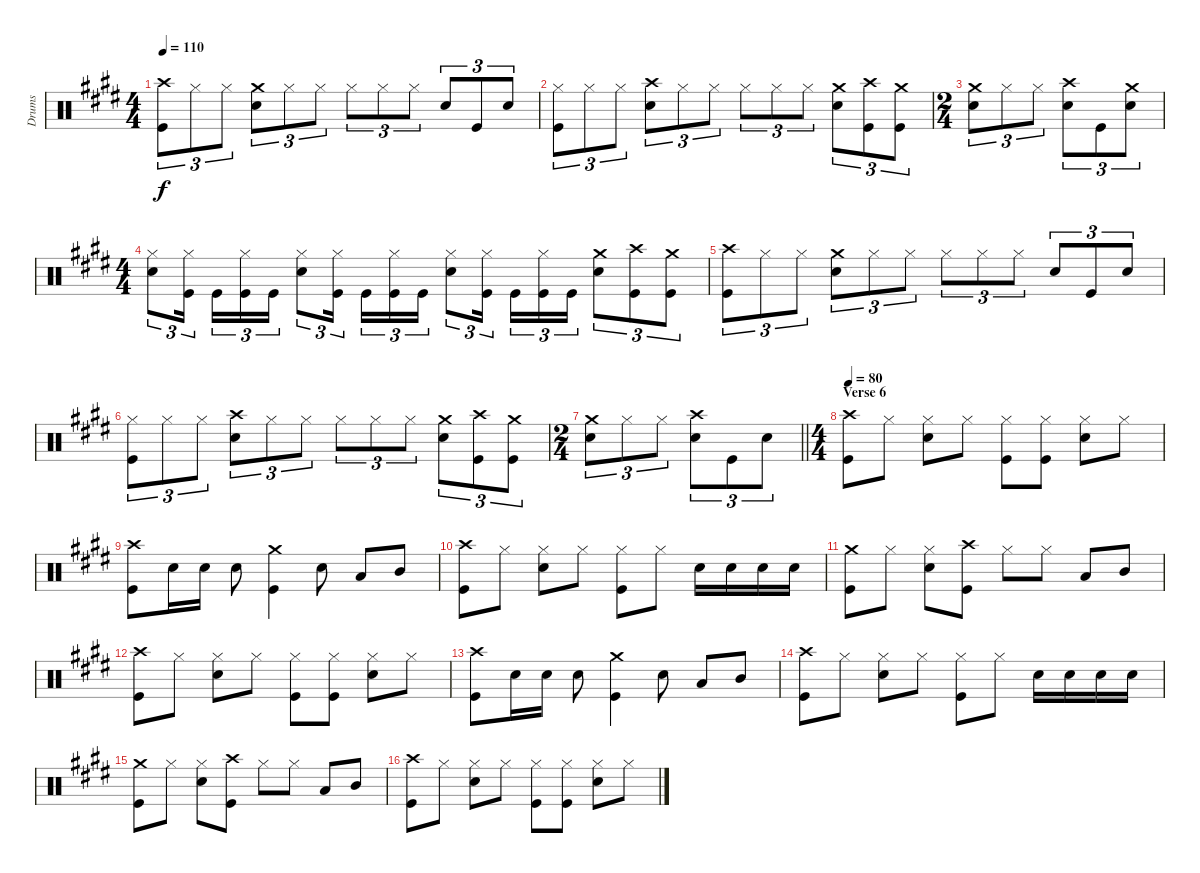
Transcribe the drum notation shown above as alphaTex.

\track ("Drums" "Drums") {instrument percussion}
\staff {score}
\articulation defaults
\ts (4 4)
\tempo 110
\clef neutral
\ks e
("Crash high (hit)" "Kick (hit)").8{tu (3 2) dy f} "Hi-Hat (closed)".8{tu (3 2)} "Hi-Hat (closed)".8{tu (3 2)} ("Crash medium (hit)" "Snare (hit) 2").8{tu (3 2)} "Hi-Hat (closed)".8{tu (3 2)} "Hi-Hat (closed)".8{tu (3 2)} "Hi-Hat (closed)".8{tu (3 2)} "Hi-Hat (closed)".8{tu (3 2)} "Hi-Hat (closed)".8{tu (3 2)} "Snare (hit) 2".8{tu (3 2)} "Kick (hit)".8{tu (3 2)} "Snare (hit) 2".8{tu (3 2)} |
("Hi-Hat (closed)" "Kick (hit)").8{tu (3 2)} "Hi-Hat (closed)".8{tu (3 2)} "Hi-Hat (closed)".8{tu (3 2)} ("Crash high (hit)" "Snare (hit) 2").8{tu (3 2)} "Hi-Hat (closed)".8{tu (3 2)} "Hi-Hat (closed)".8{tu (3 2)} "Hi-Hat (closed)".8{tu (3 2)} "Hi-Hat (closed)".8{tu (3 2)} "Hi-Hat (closed)".8{tu (3 2)} ("Crash medium (hit)" "Snare (hit) 2").8{tu (3 2)} ("Crash high (hit)" "Kick (hit)").8{tu (3 2)} ("Crash medium (hit)" "Kick (hit)").8{tu (3 2)} |
\ts (2 4)
("Crash medium (hit)" "Snare (hit) 2").8{tu (3 2)} "Hi-Hat (closed)".8{tu (3 2)} "Hi-Hat (closed)".8{tu (3 2)} ("Crash high (hit)" "Snare (hit) 2").8{tu (3 2)} "Kick (hit)".8{tu (3 2)} ("Crash medium (hit)" "Snare (hit) 2").8{tu (3 2)} |
\ts (4 4)
("Hi-Hat (closed)" "Snare (hit) 2").8{tu (3 2)} ("Hi-Hat (closed)" "Kick (hit)").16{tu (3 2) beam splitsecondary} "Kick (hit)".16{tu (3 2)} ("Hi-Hat (closed)" "Kick (hit)").16{tu (3 2)} "Kick (hit)".16{tu (3 2)} ("Hi-Hat (closed)" "Snare (hit) 2").8{tu (3 2)} ("Hi-Hat (closed)" "Kick (hit)").16{tu (3 2) beam splitsecondary} "Kick (hit)".16{tu (3 2)} ("Hi-Hat (closed)" "Kick (hit)").16{tu (3 2)} "Kick (hit)".16{tu (3 2)} ("Hi-Hat (closed)" "Snare (hit) 2").8{tu (3 2)} ("Hi-Hat (closed)" "Kick (hit)").16{tu (3 2) beam splitsecondary} "Kick (hit)".16{tu (3 2)} ("Hi-Hat (closed)" "Kick (hit)").16{tu (3 2)} "Kick (hit)".16{tu (3 2)} ("Crash medium (hit)" "Snare (hit) 2").8{tu (3 2)} ("Crash high (hit)" "Kick (hit)").8{tu (3 2)} ("Crash medium (hit)" "Kick (hit)").8{tu (3 2)} |
("Crash high (hit)" "Kick (hit)").8{tu (3 2)} "Hi-Hat (closed)".8{tu (3 2)} "Hi-Hat (closed)".8{tu (3 2)} ("Crash medium (hit)" "Snare (hit) 2").8{tu (3 2)} "Hi-Hat (closed)".8{tu (3 2)} "Hi-Hat (closed)".8{tu (3 2)} "Hi-Hat (closed)".8{tu (3 2)} "Hi-Hat (closed)".8{tu (3 2)} "Hi-Hat (closed)".8{tu (3 2)} "Snare (hit) 2".8{tu (3 2)} "Kick (hit)".8{tu (3 2)} "Snare (hit) 2".8{tu (3 2)} |
("Hi-Hat (closed)" "Kick (hit)").8{tu (3 2)} "Hi-Hat (closed)".8{tu (3 2)} "Hi-Hat (closed)".8{tu (3 2)} ("Crash high (hit)" "Snare (hit) 2").8{tu (3 2)} "Hi-Hat (closed)".8{tu (3 2)} "Hi-Hat (closed)".8{tu (3 2)} "Hi-Hat (closed)".8{tu (3 2)} "Hi-Hat (closed)".8{tu (3 2)} "Hi-Hat (closed)".8{tu (3 2)} ("Crash medium (hit)" "Snare (hit) 2").8{tu (3 2)} ("Crash high (hit)" "Kick (hit)").8{tu (3 2)} ("Crash medium (hit)" "Kick (hit)").8{tu (3 2)} |
\ts (2 4)
\barLineRight lightlight
("Crash medium (hit)" "Snare (hit) 2").8{tu (3 2)} "Hi-Hat (closed)".8{tu (3 2)} "Hi-Hat (closed)".8{tu (3 2)} ("Crash high (hit)" "Snare (hit) 2").8{tu (3 2)} "Kick (hit)".8{tu (3 2)} "Snare (hit) 2".8{tu (3 2)} |
\ts (4 4)
\section ("" "Verse 6")
\tempo 80
("Crash high (hit)" "Kick (hit)").8 "Hi-Hat (closed)".8 ("Hi-Hat (closed)" "Snare (hit) 2").8 "Hi-Hat (closed)".8 ("Hi-Hat (closed)" "Kick (hit)").8 ("Hi-Hat (closed)" "Kick (hit)").8 ("Hi-Hat (closed)" "Snare (hit) 2").8 "Hi-Hat (closed)".8 |
("Crash high (hit)" "Kick (hit)").8 "Snare (hit) 2".16 "Snare (hit) 2".16 "Snare (hit) 2".8 ("Crash medium (hit)" "Kick (hit)").4 "Snare (hit) 2".8 "Low Tom (hit)".8 "Mid Tom (hit)".8 |
("Crash high (hit)" "Kick (hit)").8 "Hi-Hat (closed)".8 ("Hi-Hat (closed)" "Snare (hit) 2").8 "Hi-Hat (closed)".8 ("Hi-Hat (closed)" "Kick (hit)").8 "Hi-Hat (closed)".8 "Snare (hit) 2".16 "Snare (hit) 2".16 "Snare (hit) 2".16 "Snare (hit) 2".16 |
("Crash medium (hit)" "Kick (hit)").8 "Hi-Hat (closed)".8 ("Hi-Hat (closed)" "Snare (hit) 2").8 ("Crash high (hit)" "Kick (hit)").8 "Hi-Hat (closed)".8 "Hi-Hat (closed)".8 "Low Tom (hit)".8 "Mid Tom (hit)".8 |
("Crash high (hit)" "Kick (hit)").8 "Hi-Hat (closed)".8 ("Hi-Hat (closed)" "Snare (hit) 2").8 "Hi-Hat (closed)".8 ("Hi-Hat (closed)" "Kick (hit)").8 ("Hi-Hat (closed)" "Kick (hit)").8 ("Hi-Hat (closed)" "Snare (hit) 2").8 "Hi-Hat (closed)".8 |
("Crash high (hit)" "Kick (hit)").8 "Snare (hit) 2".16 "Snare (hit) 2".16 "Snare (hit) 2".8 ("Crash medium (hit)" "Kick (hit)").4 "Snare (hit) 2".8 "Low Tom (hit)".8 "Mid Tom (hit)".8 |
("Crash high (hit)" "Kick (hit)").8 "Hi-Hat (closed)".8 ("Hi-Hat (closed)" "Snare (hit) 2").8 "Hi-Hat (closed)".8 ("Hi-Hat (closed)" "Kick (hit)").8 "Hi-Hat (closed)".8 "Snare (hit) 2".16 "Snare (hit) 2".16 "Snare (hit) 2".16 "Snare (hit) 2".16 |
("Crash medium (hit)" "Kick (hit)").8 "Hi-Hat (closed)".8 ("Hi-Hat (closed)" "Snare (hit) 2").8 ("Crash high (hit)" "Kick (hit)").8 "Hi-Hat (closed)".8 "Hi-Hat (closed)".8 "Low Tom (hit)".8 "Mid Tom (hit)".8 |
("Crash high (hit)" "Kick (hit)").8 "Hi-Hat (closed)".8 ("Hi-Hat (closed)" "Snare (hit) 2").8 "Hi-Hat (closed)".8 ("Hi-Hat (closed)" "Kick (hit)").8 ("Hi-Hat (closed)" "Kick (hit)").8 ("Hi-Hat (closed)" "Snare (hit) 2").8 "Hi-Hat (closed)".8
